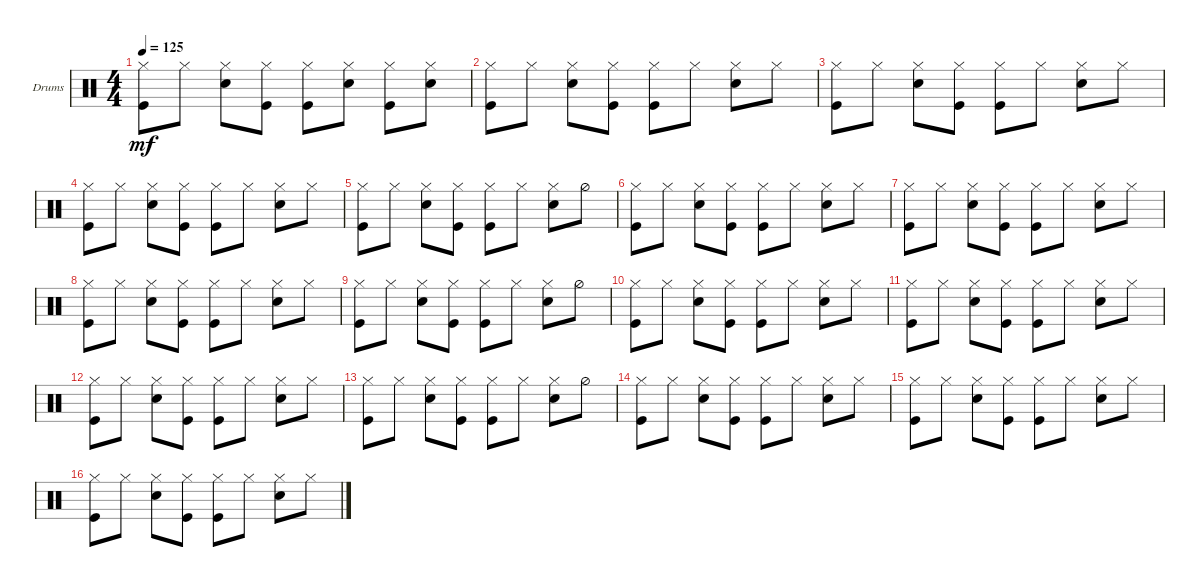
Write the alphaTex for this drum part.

\defaultSystemsLayout 4
\bracketExtendMode groupsimilarinstruments
\firstSystemTrackNameOrientation horizontal
\otherSystemsTrackNameOrientation horizontal
\track ("Drumkit" "Drums") {instrument percussion}
\staff {score}
\articulation defaults
\ts (4 4)
\tempo 125
\clef neutral
\ks c
("Hi-Hat (closed)" "Kick (hit)").8{dy mf} "Hi-Hat (closed)".8 ("Hi-Hat (closed)" "Snare (hit) 2").8 ("Hi-Hat (closed)" "Kick (hit)").8 ("Kick (hit)" "Hi-Hat (closed)").8 ("Hi-Hat (closed)" "Snare (hit) 2").8 ("Kick (hit)" "Hi-Hat (closed)").8 ("Hi-Hat (closed)" "Snare (hit) 2").8 |
("Hi-Hat (closed)" "Kick (hit)").8 "Hi-Hat (closed)".8 ("Hi-Hat (closed)" "Snare (hit) 2").8 ("Hi-Hat (closed)" "Kick (hit)").8 ("Hi-Hat (closed)" "Kick (hit)").8 "Hi-Hat (closed)".8 ("Hi-Hat (closed)" "Snare (hit) 2").8 "Hi-Hat (closed)".8 |
("Hi-Hat (closed)" "Kick (hit)").8 "Hi-Hat (closed)".8 ("Hi-Hat (closed)" "Snare (hit) 2").8 ("Hi-Hat (closed)" "Kick (hit)").8 ("Hi-Hat (closed)" "Kick (hit)").8 "Hi-Hat (closed)".8 ("Hi-Hat (closed)" "Snare (hit) 2").8 "Hi-Hat (closed)".8 |
("Hi-Hat (closed)" "Kick (hit)").8 "Hi-Hat (closed)".8 ("Hi-Hat (closed)" "Snare (hit) 2").8 ("Hi-Hat (closed)" "Kick (hit)").8 ("Hi-Hat (closed)" "Kick (hit)").8 "Hi-Hat (closed)".8 ("Hi-Hat (closed)" "Snare (hit) 2").8 "Hi-Hat (closed)".8 |
("Hi-Hat (closed)" "Kick (hit)").8 "Hi-Hat (closed)".8 ("Hi-Hat (closed)" "Snare (hit) 2").8 ("Hi-Hat (closed)" "Kick (hit)").8 ("Hi-Hat (closed)" "Kick (hit)").8 "Hi-Hat (closed)".8 ("Hi-Hat (closed)" "Snare (hit) 2").8 "Hi-Hat (half)".8 |
("Hi-Hat (closed)" "Kick (hit)").8 "Hi-Hat (closed)".8 ("Hi-Hat (closed)" "Snare (hit) 2").8 ("Hi-Hat (closed)" "Kick (hit)").8 ("Hi-Hat (closed)" "Kick (hit)").8 "Hi-Hat (closed)".8 ("Hi-Hat (closed)" "Snare (hit) 2").8 "Hi-Hat (closed)".8 |
("Hi-Hat (closed)" "Kick (hit)").8 "Hi-Hat (closed)".8 ("Hi-Hat (closed)" "Snare (hit) 2").8 ("Hi-Hat (closed)" "Kick (hit)").8 ("Hi-Hat (closed)" "Kick (hit)").8 "Hi-Hat (closed)".8 ("Hi-Hat (closed)" "Snare (hit) 2").8 "Hi-Hat (closed)".8 |
("Hi-Hat (closed)" "Kick (hit)").8 "Hi-Hat (closed)".8 ("Hi-Hat (closed)" "Snare (hit) 2").8 ("Hi-Hat (closed)" "Kick (hit)").8 ("Hi-Hat (closed)" "Kick (hit)").8 "Hi-Hat (closed)".8 ("Hi-Hat (closed)" "Snare (hit) 2").8 "Hi-Hat (closed)".8 |
("Hi-Hat (closed)" "Kick (hit)").8 "Hi-Hat (closed)".8 ("Hi-Hat (closed)" "Snare (hit) 2").8 ("Hi-Hat (closed)" "Kick (hit)").8 ("Hi-Hat (closed)" "Kick (hit)").8 "Hi-Hat (closed)".8 ("Hi-Hat (closed)" "Snare (hit) 2").8 "Hi-Hat (half)".8 |
("Hi-Hat (closed)" "Kick (hit)").8 "Hi-Hat (closed)".8 ("Hi-Hat (closed)" "Snare (hit) 2").8 ("Hi-Hat (closed)" "Kick (hit)").8 ("Hi-Hat (closed)" "Kick (hit)").8 "Hi-Hat (closed)".8 ("Hi-Hat (closed)" "Snare (hit) 2").8 "Hi-Hat (closed)".8 |
("Hi-Hat (closed)" "Kick (hit)").8 "Hi-Hat (closed)".8 ("Hi-Hat (closed)" "Snare (hit) 2").8 ("Hi-Hat (closed)" "Kick (hit)").8 ("Hi-Hat (closed)" "Kick (hit)").8 "Hi-Hat (closed)".8 ("Hi-Hat (closed)" "Snare (hit) 2").8 "Hi-Hat (closed)".8 |
("Hi-Hat (closed)" "Kick (hit)").8 "Hi-Hat (closed)".8 ("Hi-Hat (closed)" "Snare (hit) 2").8 ("Hi-Hat (closed)" "Kick (hit)").8 ("Hi-Hat (closed)" "Kick (hit)").8 "Hi-Hat (closed)".8 ("Hi-Hat (closed)" "Snare (hit) 2").8 "Hi-Hat (closed)".8 |
("Hi-Hat (closed)" "Kick (hit)").8 "Hi-Hat (closed)".8 ("Hi-Hat (closed)" "Snare (hit) 2").8 ("Hi-Hat (closed)" "Kick (hit)").8 ("Hi-Hat (closed)" "Kick (hit)").8 "Hi-Hat (closed)".8 ("Hi-Hat (closed)" "Snare (hit) 2").8 "Hi-Hat (half)".8 |
("Hi-Hat (closed)" "Kick (hit)").8 "Hi-Hat (closed)".8 ("Hi-Hat (closed)" "Snare (hit) 2").8 ("Hi-Hat (closed)" "Kick (hit)").8 ("Hi-Hat (closed)" "Kick (hit)").8 "Hi-Hat (closed)".8 ("Hi-Hat (closed)" "Snare (hit) 2").8 "Hi-Hat (closed)".8 |
("Hi-Hat (closed)" "Kick (hit)").8 "Hi-Hat (closed)".8 ("Hi-Hat (closed)" "Snare (hit) 2").8 ("Hi-Hat (closed)" "Kick (hit)").8 ("Hi-Hat (closed)" "Kick (hit)").8 "Hi-Hat (closed)".8 ("Hi-Hat (closed)" "Snare (hit) 2").8 "Hi-Hat (closed)".8 |
("Hi-Hat (closed)" "Kick (hit)").8 "Hi-Hat (closed)".8 ("Hi-Hat (closed)" "Snare (hit) 2").8 ("Hi-Hat (closed)" "Kick (hit)").8 ("Hi-Hat (closed)" "Kick (hit)").8 "Hi-Hat (closed)".8 ("Hi-Hat (closed)" "Snare (hit) 2").8 "Hi-Hat (closed)".8
